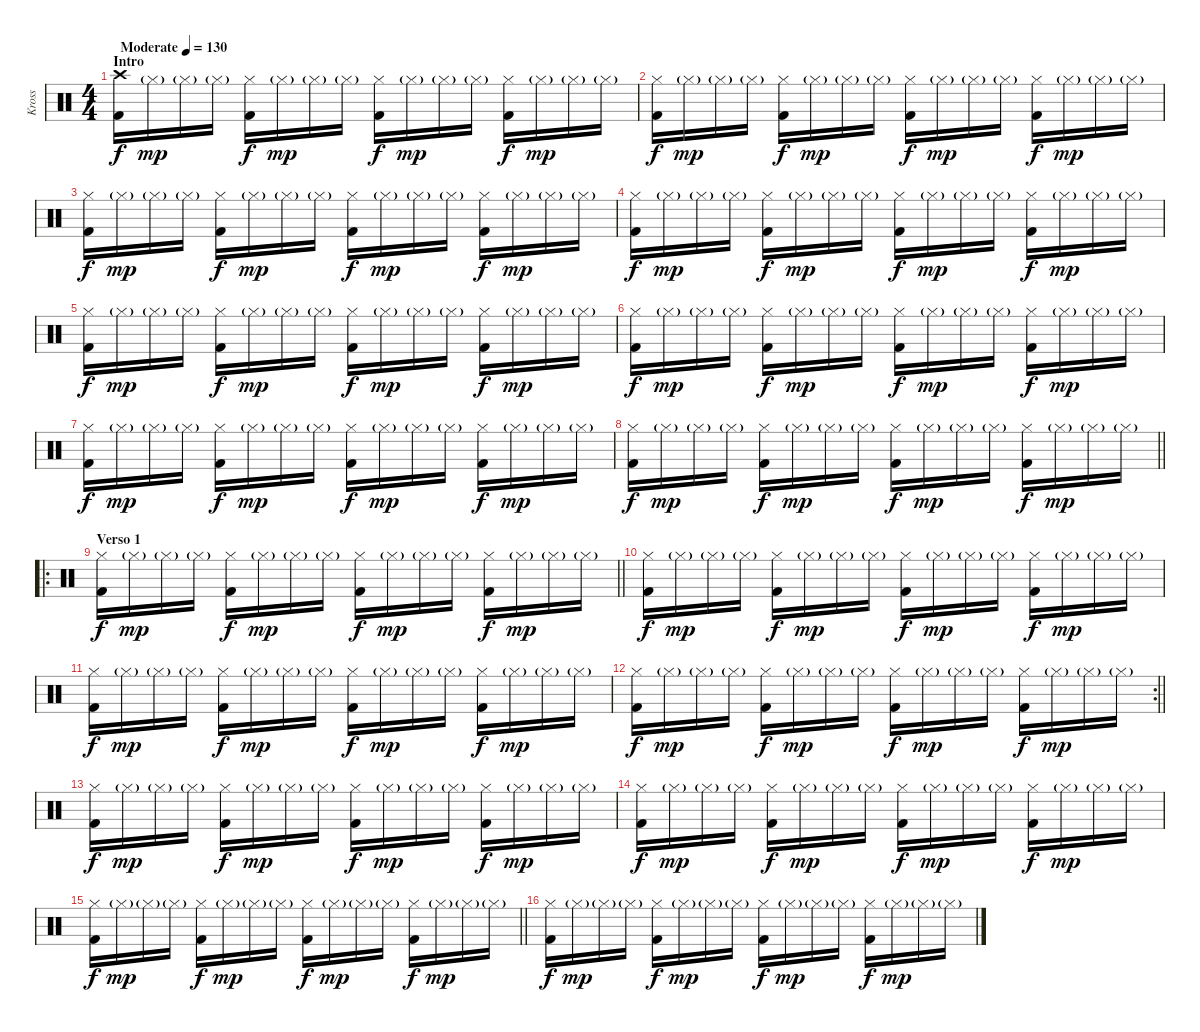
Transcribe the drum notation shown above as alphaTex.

\track ("Kross" "Kross") {instrument percussion}
\staff {score}
\articulation defaults
\ts (4 4)
\section ("" "Intro")
\tempo (130 "Moderate")
\clef neutral
\ks c
("Crash high (hit)" "Kick (hit) 2").16{dy f} "Hi-Hat (closed)"{g}.16{dy mp} "Hi-Hat (closed)"{g}.16 "Hi-Hat (closed)"{g}.16 ("Hi-Hat (closed)" "Kick (hit) 2").16{dy f} "Hi-Hat (closed)"{g}.16{dy mp} "Hi-Hat (closed)"{g}.16 "Hi-Hat (closed)"{g}.16 ("Hi-Hat (closed)" "Kick (hit) 2").16{dy f} "Hi-Hat (closed)"{g}.16{dy mp} "Hi-Hat (closed)"{g}.16 "Hi-Hat (closed)"{g}.16 ("Hi-Hat (closed)" "Kick (hit) 2").16{dy f} "Hi-Hat (closed)"{g}.16{dy mp} "Hi-Hat (closed)"{g}.16 "Hi-Hat (closed)"{g}.16 |
("Hi-Hat (closed)" "Kick (hit) 2").16{dy f} "Hi-Hat (closed)"{g}.16{dy mp} "Hi-Hat (closed)"{g}.16 "Hi-Hat (closed)"{g}.16 ("Hi-Hat (closed)" "Kick (hit) 2").16{dy f} "Hi-Hat (closed)"{g}.16{dy mp} "Hi-Hat (closed)"{g}.16 "Hi-Hat (closed)"{g}.16 ("Hi-Hat (closed)" "Kick (hit) 2").16{dy f} "Hi-Hat (closed)"{g}.16{dy mp} "Hi-Hat (closed)"{g}.16 "Hi-Hat (closed)"{g}.16 ("Hi-Hat (closed)" "Kick (hit) 2").16{dy f} "Hi-Hat (closed)"{g}.16{dy mp} "Hi-Hat (closed)"{g}.16 "Hi-Hat (closed)"{g}.16 |
("Hi-Hat (closed)" "Kick (hit) 2").16{dy f} "Hi-Hat (closed)"{g}.16{dy mp} "Hi-Hat (closed)"{g}.16 "Hi-Hat (closed)"{g}.16 ("Hi-Hat (closed)" "Kick (hit) 2").16{dy f} "Hi-Hat (closed)"{g}.16{dy mp} "Hi-Hat (closed)"{g}.16 "Hi-Hat (closed)"{g}.16 ("Hi-Hat (closed)" "Kick (hit) 2").16{dy f} "Hi-Hat (closed)"{g}.16{dy mp} "Hi-Hat (closed)"{g}.16 "Hi-Hat (closed)"{g}.16 ("Hi-Hat (closed)" "Kick (hit) 2").16{dy f} "Hi-Hat (closed)"{g}.16{dy mp} "Hi-Hat (closed)"{g}.16 "Hi-Hat (closed)"{g}.16 |
("Hi-Hat (closed)" "Kick (hit) 2").16{dy f} "Hi-Hat (closed)"{g}.16{dy mp} "Hi-Hat (closed)"{g}.16 "Hi-Hat (closed)"{g}.16 ("Hi-Hat (closed)" "Kick (hit) 2").16{dy f} "Hi-Hat (closed)"{g}.16{dy mp} "Hi-Hat (closed)"{g}.16 "Hi-Hat (closed)"{g}.16 ("Hi-Hat (closed)" "Kick (hit) 2").16{dy f} "Hi-Hat (closed)"{g}.16{dy mp} "Hi-Hat (closed)"{g}.16 "Hi-Hat (closed)"{g}.16 ("Hi-Hat (closed)" "Kick (hit) 2").16{dy f} "Hi-Hat (closed)"{g}.16{dy mp} "Hi-Hat (closed)"{g}.16 "Hi-Hat (closed)"{g}.16 |
("Hi-Hat (closed)" "Kick (hit) 2").16{dy f} "Hi-Hat (closed)"{g}.16{dy mp} "Hi-Hat (closed)"{g}.16 "Hi-Hat (closed)"{g}.16 ("Hi-Hat (closed)" "Kick (hit) 2").16{dy f} "Hi-Hat (closed)"{g}.16{dy mp} "Hi-Hat (closed)"{g}.16 "Hi-Hat (closed)"{g}.16 ("Hi-Hat (closed)" "Kick (hit) 2").16{dy f} "Hi-Hat (closed)"{g}.16{dy mp} "Hi-Hat (closed)"{g}.16 "Hi-Hat (closed)"{g}.16 ("Hi-Hat (closed)" "Kick (hit) 2").16{dy f} "Hi-Hat (closed)"{g}.16{dy mp} "Hi-Hat (closed)"{g}.16 "Hi-Hat (closed)"{g}.16 |
("Hi-Hat (closed)" "Kick (hit) 2").16{dy f} "Hi-Hat (closed)"{g}.16{dy mp} "Hi-Hat (closed)"{g}.16 "Hi-Hat (closed)"{g}.16 ("Hi-Hat (closed)" "Kick (hit) 2").16{dy f} "Hi-Hat (closed)"{g}.16{dy mp} "Hi-Hat (closed)"{g}.16 "Hi-Hat (closed)"{g}.16 ("Hi-Hat (closed)" "Kick (hit) 2").16{dy f} "Hi-Hat (closed)"{g}.16{dy mp} "Hi-Hat (closed)"{g}.16 "Hi-Hat (closed)"{g}.16 ("Hi-Hat (closed)" "Kick (hit) 2").16{dy f} "Hi-Hat (closed)"{g}.16{dy mp} "Hi-Hat (closed)"{g}.16 "Hi-Hat (closed)"{g}.16 |
("Hi-Hat (closed)" "Kick (hit) 2").16{dy f} "Hi-Hat (closed)"{g}.16{dy mp} "Hi-Hat (closed)"{g}.16 "Hi-Hat (closed)"{g}.16 ("Hi-Hat (closed)" "Kick (hit) 2").16{dy f} "Hi-Hat (closed)"{g}.16{dy mp} "Hi-Hat (closed)"{g}.16 "Hi-Hat (closed)"{g}.16 ("Hi-Hat (closed)" "Kick (hit) 2").16{dy f} "Hi-Hat (closed)"{g}.16{dy mp} "Hi-Hat (closed)"{g}.16 "Hi-Hat (closed)"{g}.16 ("Hi-Hat (closed)" "Kick (hit) 2").16{dy f} "Hi-Hat (closed)"{g}.16{dy mp} "Hi-Hat (closed)"{g}.16 "Hi-Hat (closed)"{g}.16 |
\barLineRight lightlight
("Hi-Hat (closed)" "Kick (hit) 2").16{dy f} "Hi-Hat (closed)"{g}.16{dy mp} "Hi-Hat (closed)"{g}.16 "Hi-Hat (closed)"{g}.16 ("Hi-Hat (closed)" "Kick (hit) 2").16{dy f} "Hi-Hat (closed)"{g}.16{dy mp} "Hi-Hat (closed)"{g}.16 "Hi-Hat (closed)"{g}.16 ("Hi-Hat (closed)" "Kick (hit) 2").16{dy f} "Hi-Hat (closed)"{g}.16{dy mp} "Hi-Hat (closed)"{g}.16 "Hi-Hat (closed)"{g}.16 ("Hi-Hat (closed)" "Kick (hit) 2").16{dy f} "Hi-Hat (closed)"{g}.16{dy mp} "Hi-Hat (closed)"{g}.16 "Hi-Hat (closed)"{g}.16 |
\ro
\section ("" "Verso 1")
\barLineRight lightlight
("Hi-Hat (closed)" "Kick (hit) 2").16{dy f} "Hi-Hat (closed)"{g}.16{dy mp} "Hi-Hat (closed)"{g}.16 "Hi-Hat (closed)"{g}.16 ("Hi-Hat (closed)" "Kick (hit) 2").16{dy f} "Hi-Hat (closed)"{g}.16{dy mp} "Hi-Hat (closed)"{g}.16 "Hi-Hat (closed)"{g}.16 ("Hi-Hat (closed)" "Kick (hit) 2").16{dy f} "Hi-Hat (closed)"{g}.16{dy mp} "Hi-Hat (closed)"{g}.16 "Hi-Hat (closed)"{g}.16 ("Hi-Hat (closed)" "Kick (hit) 2").16{dy f} "Hi-Hat (closed)"{g}.16{dy mp} "Hi-Hat (closed)"{g}.16 "Hi-Hat (closed)"{g}.16 |
("Hi-Hat (closed)" "Kick (hit) 2").16{dy f} "Hi-Hat (closed)"{g}.16{dy mp} "Hi-Hat (closed)"{g}.16 "Hi-Hat (closed)"{g}.16 ("Hi-Hat (closed)" "Kick (hit) 2").16{dy f} "Hi-Hat (closed)"{g}.16{dy mp} "Hi-Hat (closed)"{g}.16 "Hi-Hat (closed)"{g}.16 ("Hi-Hat (closed)" "Kick (hit) 2").16{dy f} "Hi-Hat (closed)"{g}.16{dy mp} "Hi-Hat (closed)"{g}.16 "Hi-Hat (closed)"{g}.16 ("Hi-Hat (closed)" "Kick (hit) 2").16{dy f} "Hi-Hat (closed)"{g}.16{dy mp} "Hi-Hat (closed)"{g}.16 "Hi-Hat (closed)"{g}.16 |
("Hi-Hat (closed)" "Kick (hit) 2").16{dy f} "Hi-Hat (closed)"{g}.16{dy mp} "Hi-Hat (closed)"{g}.16 "Hi-Hat (closed)"{g}.16 ("Hi-Hat (closed)" "Kick (hit) 2").16{dy f} "Hi-Hat (closed)"{g}.16{dy mp} "Hi-Hat (closed)"{g}.16 "Hi-Hat (closed)"{g}.16 ("Hi-Hat (closed)" "Kick (hit) 2").16{dy f} "Hi-Hat (closed)"{g}.16{dy mp} "Hi-Hat (closed)"{g}.16 "Hi-Hat (closed)"{g}.16 ("Hi-Hat (closed)" "Kick (hit) 2").16{dy f} "Hi-Hat (closed)"{g}.16{dy mp} "Hi-Hat (closed)"{g}.16 "Hi-Hat (closed)"{g}.16 |
\rc 2
\barLineRight lightlight
("Hi-Hat (closed)" "Kick (hit) 2").16{dy f} "Hi-Hat (closed)"{g}.16{dy mp} "Hi-Hat (closed)"{g}.16 "Hi-Hat (closed)"{g}.16 ("Hi-Hat (closed)" "Kick (hit) 2").16{dy f} "Hi-Hat (closed)"{g}.16{dy mp} "Hi-Hat (closed)"{g}.16 "Hi-Hat (closed)"{g}.16 ("Hi-Hat (closed)" "Kick (hit) 2").16{dy f} "Hi-Hat (closed)"{g}.16{dy mp} "Hi-Hat (closed)"{g}.16 "Hi-Hat (closed)"{g}.16 ("Hi-Hat (closed)" "Kick (hit) 2").16{dy f} "Hi-Hat (closed)"{g}.16{dy mp} "Hi-Hat (closed)"{g}.16 "Hi-Hat (closed)"{g}.16 |
("Hi-Hat (closed)" "Kick (hit) 2").16{dy f} "Hi-Hat (closed)"{g}.16{dy mp} "Hi-Hat (closed)"{g}.16 "Hi-Hat (closed)"{g}.16 ("Hi-Hat (closed)" "Kick (hit) 2").16{dy f} "Hi-Hat (closed)"{g}.16{dy mp} "Hi-Hat (closed)"{g}.16 "Hi-Hat (closed)"{g}.16 ("Hi-Hat (closed)" "Kick (hit) 2").16{dy f} "Hi-Hat (closed)"{g}.16{dy mp} "Hi-Hat (closed)"{g}.16 "Hi-Hat (closed)"{g}.16 ("Hi-Hat (closed)" "Kick (hit) 2").16{dy f} "Hi-Hat (closed)"{g}.16{dy mp} "Hi-Hat (closed)"{g}.16 "Hi-Hat (closed)"{g}.16 |
("Hi-Hat (closed)" "Kick (hit) 2").16{dy f} "Hi-Hat (closed)"{g}.16{dy mp} "Hi-Hat (closed)"{g}.16 "Hi-Hat (closed)"{g}.16 ("Hi-Hat (closed)" "Kick (hit) 2").16{dy f} "Hi-Hat (closed)"{g}.16{dy mp} "Hi-Hat (closed)"{g}.16 "Hi-Hat (closed)"{g}.16 ("Hi-Hat (closed)" "Kick (hit) 2").16{dy f} "Hi-Hat (closed)"{g}.16{dy mp} "Hi-Hat (closed)"{g}.16 "Hi-Hat (closed)"{g}.16 ("Hi-Hat (closed)" "Kick (hit) 2").16{dy f} "Hi-Hat (closed)"{g}.16{dy mp} "Hi-Hat (closed)"{g}.16 "Hi-Hat (closed)"{g}.16 |
\barLineRight lightlight
("Hi-Hat (closed)" "Kick (hit) 2").16{dy f} "Hi-Hat (closed)"{g}.16{dy mp} "Hi-Hat (closed)"{g}.16 "Hi-Hat (closed)"{g}.16 ("Hi-Hat (closed)" "Kick (hit) 2").16{dy f} "Hi-Hat (closed)"{g}.16{dy mp} "Hi-Hat (closed)"{g}.16 "Hi-Hat (closed)"{g}.16 ("Hi-Hat (closed)" "Kick (hit) 2").16{dy f} "Hi-Hat (closed)"{g}.16{dy mp} "Hi-Hat (closed)"{g}.16 "Hi-Hat (closed)"{g}.16 ("Hi-Hat (closed)" "Kick (hit) 2").16{dy f} "Hi-Hat (closed)"{g}.16{dy mp} "Hi-Hat (closed)"{g}.16 "Hi-Hat (closed)"{g}.16 |
("Hi-Hat (closed)" "Kick (hit) 2").16{dy f} "Hi-Hat (closed)"{g}.16{dy mp} "Hi-Hat (closed)"{g}.16 "Hi-Hat (closed)"{g}.16 ("Hi-Hat (closed)" "Kick (hit) 2").16{dy f} "Hi-Hat (closed)"{g}.16{dy mp} "Hi-Hat (closed)"{g}.16 "Hi-Hat (closed)"{g}.16 ("Hi-Hat (closed)" "Kick (hit) 2").16{dy f} "Hi-Hat (closed)"{g}.16{dy mp} "Hi-Hat (closed)"{g}.16 "Hi-Hat (closed)"{g}.16 ("Hi-Hat (closed)" "Kick (hit) 2").16{dy f} "Hi-Hat (closed)"{g}.16{dy mp} "Hi-Hat (closed)"{g}.16 "Hi-Hat (closed)"{g}.16
